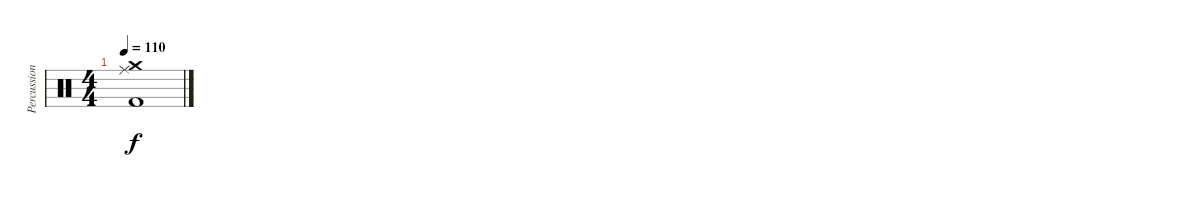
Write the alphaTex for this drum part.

\track ("Percussion" "Percussion") {instrument percussion}
\staff {score}
\articulation defaults
\ts (4 4)
\tempo 110
\clef neutral
\ks c
("Crash medium (hit)" "Ride (middle)" "Kick (hit) 2").1{dy f}
